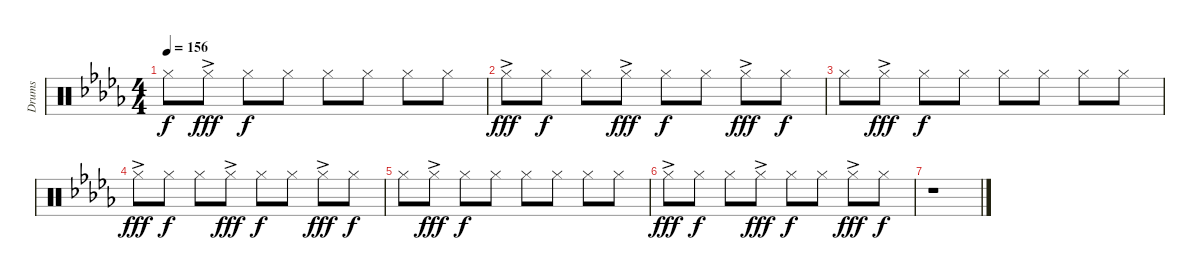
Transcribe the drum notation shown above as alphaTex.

\track ("Drums" "Drums") {instrument percussion}
\staff {score}
\articulation defaults
\ts (4 4)
\tempo 156
\clef neutral
\ks db "Hi-Hat (closed)".8{dy f} "Hi-Hat (closed)"{ac}.8{dy fff} "Hi-Hat (closed)".8{dy f} "Hi-Hat (closed)".8 "Hi-Hat (closed)".8 "Hi-Hat (closed)".8 "Hi-Hat (closed)".8 "Hi-Hat (closed)".8
|
"Hi-Hat (closed)"{ac}.8{dy fff} "Hi-Hat (closed)".8{dy f} "Hi-Hat (closed)".8 "Hi-Hat (closed)"{ac}.8{dy fff} "Hi-Hat (closed)".8{dy f} "Hi-Hat (closed)".8 "Hi-Hat (closed)"{ac}.8{dy fff} "Hi-Hat (closed)".8{dy f} |
"Hi-Hat (closed)".8 "Hi-Hat (closed)"{ac}.8{dy fff} "Hi-Hat (closed)".8{dy f} "Hi-Hat (closed)".8 "Hi-Hat (closed)".8 "Hi-Hat (closed)".8 "Hi-Hat (closed)".8 "Hi-Hat (closed)".8 |
"Hi-Hat (closed)"{ac}.8{dy fff} "Hi-Hat (closed)".8{dy f} "Hi-Hat (closed)".8 "Hi-Hat (closed)"{ac}.8{dy fff} "Hi-Hat (closed)".8{dy f} "Hi-Hat (closed)".8 "Hi-Hat (closed)"{ac}.8{dy fff} "Hi-Hat (closed)".8{dy f} |
"Hi-Hat (closed)".8 "Hi-Hat (closed)"{ac}.8{dy fff} "Hi-Hat (closed)".8{dy f} "Hi-Hat (closed)".8 "Hi-Hat (closed)".8 "Hi-Hat (closed)".8 "Hi-Hat (closed)".8 "Hi-Hat (closed)".8 |
"Hi-Hat (closed)"{ac}.8{dy fff} "Hi-Hat (closed)".8{dy f} "Hi-Hat (closed)".8 "Hi-Hat (closed)"{ac}.8{dy fff} "Hi-Hat (closed)".8{dy f} "Hi-Hat (closed)".8 "Hi-Hat (closed)"{ac}.8{dy fff} "Hi-Hat (closed)".8{dy f} |
r.1
